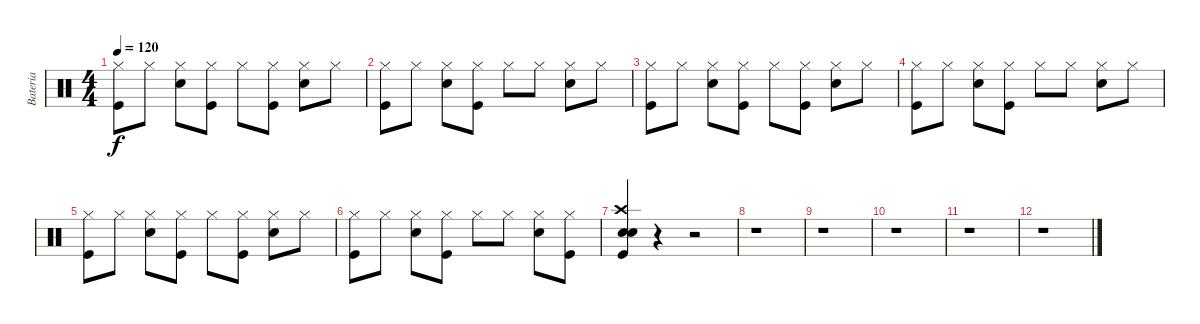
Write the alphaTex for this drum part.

\track ("Bateria" "Bateria") {instrument percussion}
\staff {score}
\articulation defaults
\ts (4 4)
\tempo 120
\clef neutral
\ks c
("Hi-Hat (closed)" "Kick (hit)").8{dy f} "Hi-Hat (closed)".8 ("Hi-Hat (closed)" "Electric Snare (hit)").8 ("Hi-Hat (closed)" "Kick (hit)").8 "Hi-Hat (closed)".8 ("Hi-Hat (closed)" "Kick (hit)").8 ("Hi-Hat (closed)" "Electric Snare (hit)").8 "Hi-Hat (closed)".8 |
("Hi-Hat (closed)" "Kick (hit)").8 "Hi-Hat (closed)".8 ("Hi-Hat (closed)" "Electric Snare (hit)").8 ("Hi-Hat (closed)" "Kick (hit)").8 "Hi-Hat (closed)".8 "Hi-Hat (closed)".8 ("Hi-Hat (closed)" "Electric Snare (hit)").8 "Hi-Hat (closed)".8 |
("Hi-Hat (closed)" "Kick (hit)").8 "Hi-Hat (closed)".8 ("Hi-Hat (closed)" "Electric Snare (hit)").8 ("Hi-Hat (closed)" "Kick (hit)").8 "Hi-Hat (closed)".8 ("Hi-Hat (closed)" "Kick (hit)").8 ("Hi-Hat (closed)" "Electric Snare (hit)").8 "Hi-Hat (closed)".8 |
("Hi-Hat (closed)" "Kick (hit)").8 "Hi-Hat (closed)".8 ("Hi-Hat (closed)" "Electric Snare (hit)").8 ("Hi-Hat (closed)" "Kick (hit)").8 "Hi-Hat (closed)".8 "Hi-Hat (closed)".8 ("Hi-Hat (closed)" "Electric Snare (hit)").8 "Hi-Hat (closed)".8 |
("Hi-Hat (closed)" "Kick (hit)").8 "Hi-Hat (closed)".8 ("Hi-Hat (closed)" "Electric Snare (hit)").8 ("Hi-Hat (closed)" "Kick (hit)").8 "Hi-Hat (closed)".8 ("Hi-Hat (closed)" "Kick (hit)").8 ("Hi-Hat (closed)" "Electric Snare (hit)").8 "Hi-Hat (closed)".8 |
("Hi-Hat (closed)" "Kick (hit)").8 "Hi-Hat (closed)".8 ("Hi-Hat (closed)" "Electric Snare (hit)").8 ("Hi-Hat (closed)" "Kick (hit)").8 "Hi-Hat (closed)".8 "Hi-Hat (closed)".8 ("Hi-Hat (closed)" "Electric Snare (hit)").8 ("Hi-Hat (closed)" "Kick (hit)").8 |
("Crash high (hit)" "Hand Clap (hit)" "Electric Snare (hit)" "Kick (hit)").4 r.4 r.2 |
r.1 |
r.1 |
r.1 |
r.1 |
r.1
